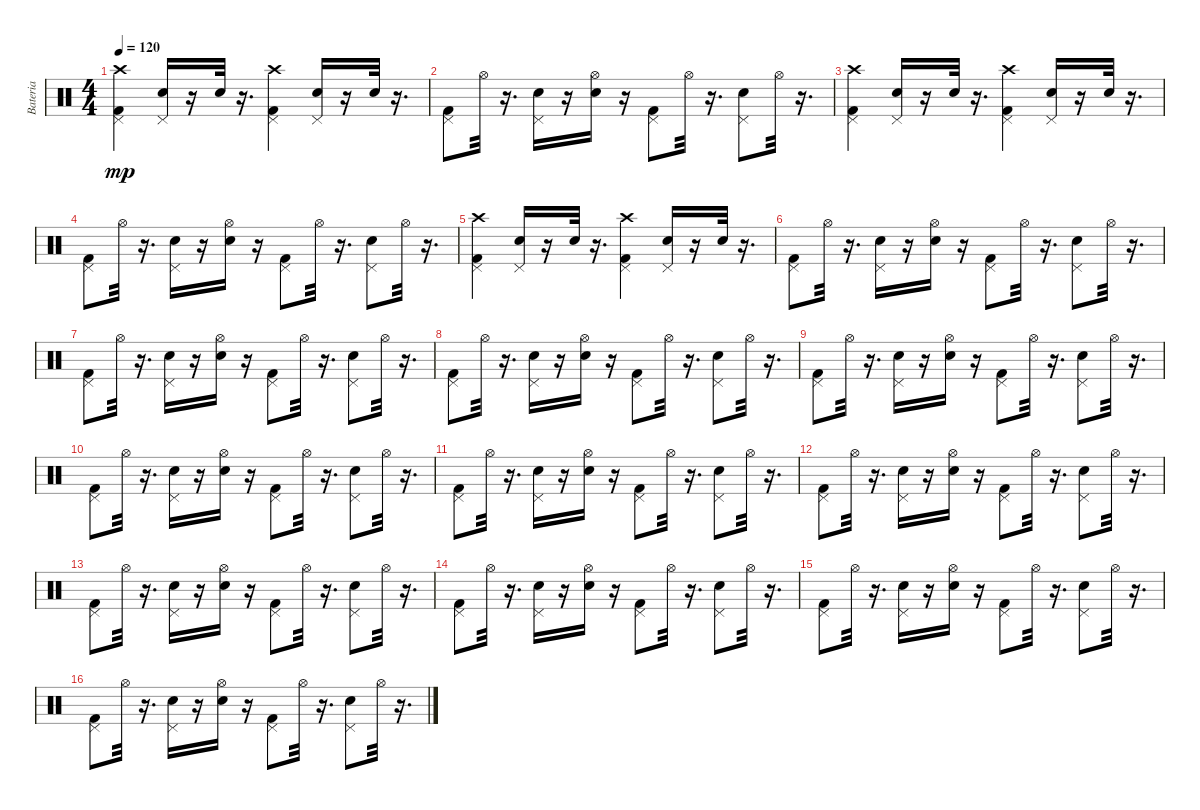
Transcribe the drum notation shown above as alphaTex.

\track ("Bateria" "Bateria") {instrument percussion}
\staff {score}
\articulation defaults
\ts (4 4)
\tempo 120
\clef neutral
\ks c
("Kick (hit) 2" "Pedal Hi-Hat (hit)" "Crash high (hit)").4{dy mp} ("Snare (hit) 2" "Pedal Hi-Hat (hit)").16 r.16 "Snare (hit) 2".32 r.16{d} ("Kick (hit) 2" "Pedal Hi-Hat (hit)" "Crash high (hit)").4 ("Snare (hit) 2" "Pedal Hi-Hat (hit)").16 r.16 "Snare (hit) 2".32 r.16{d} |
("Kick (hit) 2" "Pedal Hi-Hat (hit)").8 "Hi-Hat (open)".32 r.16{d} ("Snare (hit) 2" "Pedal Hi-Hat (hit)").16 r.16 ("Snare (hit) 2" "Hi-Hat (open)").16 r.16 ("Kick (hit) 2" "Pedal Hi-Hat (hit)").8 "Hi-Hat (open)".32 r.16{d} ("Snare (hit) 2" "Pedal Hi-Hat (hit)").8 "Hi-Hat (open)".32 r.16{d} |
("Kick (hit) 2" "Pedal Hi-Hat (hit)" "Crash high (hit)").4 ("Snare (hit) 2" "Pedal Hi-Hat (hit)").16 r.16 "Snare (hit) 2".32 r.16{d} ("Kick (hit) 2" "Pedal Hi-Hat (hit)" "Crash high (hit)").4 ("Snare (hit) 2" "Pedal Hi-Hat (hit)").16 r.16 "Snare (hit) 2".32 r.16{d} |
("Kick (hit) 2" "Pedal Hi-Hat (hit)").8 "Hi-Hat (open)".32 r.16{d} ("Snare (hit) 2" "Pedal Hi-Hat (hit)").16 r.16 ("Snare (hit) 2" "Hi-Hat (open)").16 r.16 ("Kick (hit) 2" "Pedal Hi-Hat (hit)").8 "Hi-Hat (open)".32 r.16{d} ("Snare (hit) 2" "Pedal Hi-Hat (hit)").8 "Hi-Hat (open)".32 r.16{d} |
("Kick (hit) 2" "Pedal Hi-Hat (hit)" "Crash high (hit)").4 ("Snare (hit) 2" "Pedal Hi-Hat (hit)").16 r.16 "Snare (hit) 2".32 r.16{d} ("Kick (hit) 2" "Pedal Hi-Hat (hit)" "Crash high (hit)").4 ("Snare (hit) 2" "Pedal Hi-Hat (hit)").16 r.16 "Snare (hit) 2".32 r.16{d} |
("Kick (hit) 2" "Pedal Hi-Hat (hit)").8 "Hi-Hat (open)".32 r.16{d} ("Snare (hit) 2" "Pedal Hi-Hat (hit)").16 r.16 ("Snare (hit) 2" "Hi-Hat (open)").16 r.16 ("Kick (hit) 2" "Pedal Hi-Hat (hit)").8 "Hi-Hat (open)".32 r.16{d} ("Snare (hit) 2" "Pedal Hi-Hat (hit)").8 "Hi-Hat (open)".32 r.16{d} |
("Kick (hit) 2" "Pedal Hi-Hat (hit)").8 "Hi-Hat (open)".32 r.16{d} ("Snare (hit) 2" "Pedal Hi-Hat (hit)").16 r.16 ("Snare (hit) 2" "Hi-Hat (open)").16 r.16 ("Kick (hit) 2" "Pedal Hi-Hat (hit)").8 "Hi-Hat (open)".32 r.16{d} ("Snare (hit) 2" "Pedal Hi-Hat (hit)").8 "Hi-Hat (open)".32 r.16{d} |
("Kick (hit) 2" "Pedal Hi-Hat (hit)").8 "Hi-Hat (open)".32 r.16{d} ("Snare (hit) 2" "Pedal Hi-Hat (hit)").16 r.16 ("Snare (hit) 2" "Hi-Hat (open)").16 r.16 ("Kick (hit) 2" "Pedal Hi-Hat (hit)").8 "Hi-Hat (open)".32 r.16{d} ("Snare (hit) 2" "Pedal Hi-Hat (hit)").8 "Hi-Hat (open)".32 r.16{d} |
("Kick (hit) 2" "Pedal Hi-Hat (hit)").8 "Hi-Hat (open)".32 r.16{d} ("Snare (hit) 2" "Pedal Hi-Hat (hit)").16 r.16 ("Snare (hit) 2" "Hi-Hat (open)").16 r.16 ("Kick (hit) 2" "Pedal Hi-Hat (hit)").8 "Hi-Hat (open)".32 r.16{d} ("Snare (hit) 2" "Pedal Hi-Hat (hit)").8 "Hi-Hat (open)".32 r.16{d} |
("Kick (hit) 2" "Pedal Hi-Hat (hit)").8 "Hi-Hat (open)".32 r.16{d} ("Snare (hit) 2" "Pedal Hi-Hat (hit)").16 r.16 ("Snare (hit) 2" "Hi-Hat (open)").16 r.16 ("Kick (hit) 2" "Pedal Hi-Hat (hit)").8 "Hi-Hat (open)".32 r.16{d} ("Snare (hit) 2" "Pedal Hi-Hat (hit)").8 "Hi-Hat (open)".32 r.16{d} |
("Kick (hit) 2" "Pedal Hi-Hat (hit)").8 "Hi-Hat (open)".32 r.16{d} ("Snare (hit) 2" "Pedal Hi-Hat (hit)").16 r.16 ("Snare (hit) 2" "Hi-Hat (open)").16 r.16 ("Kick (hit) 2" "Pedal Hi-Hat (hit)").8 "Hi-Hat (open)".32 r.16{d} ("Snare (hit) 2" "Pedal Hi-Hat (hit)").8 "Hi-Hat (open)".32 r.16{d} |
("Kick (hit) 2" "Pedal Hi-Hat (hit)").8 "Hi-Hat (open)".32 r.16{d} ("Snare (hit) 2" "Pedal Hi-Hat (hit)").16 r.16 ("Snare (hit) 2" "Hi-Hat (open)").16 r.16 ("Kick (hit) 2" "Pedal Hi-Hat (hit)").8 "Hi-Hat (open)".32 r.16{d} ("Snare (hit) 2" "Pedal Hi-Hat (hit)").8 "Hi-Hat (open)".32 r.16{d} |
("Kick (hit) 2" "Pedal Hi-Hat (hit)").8 "Hi-Hat (open)".32 r.16{d} ("Snare (hit) 2" "Pedal Hi-Hat (hit)").16 r.16 ("Snare (hit) 2" "Hi-Hat (open)").16 r.16 ("Kick (hit) 2" "Pedal Hi-Hat (hit)").8 "Hi-Hat (open)".32 r.16{d} ("Snare (hit) 2" "Pedal Hi-Hat (hit)").8 "Hi-Hat (open)".32 r.16{d} |
("Kick (hit) 2" "Pedal Hi-Hat (hit)").8 "Hi-Hat (open)".32 r.16{d} ("Snare (hit) 2" "Pedal Hi-Hat (hit)").16 r.16 ("Snare (hit) 2" "Hi-Hat (open)").16 r.16 ("Kick (hit) 2" "Pedal Hi-Hat (hit)").8 "Hi-Hat (open)".32 r.16{d} ("Snare (hit) 2" "Pedal Hi-Hat (hit)").8 "Hi-Hat (open)".32 r.16{d} |
("Kick (hit) 2" "Pedal Hi-Hat (hit)").8 "Hi-Hat (open)".32 r.16{d} ("Snare (hit) 2" "Pedal Hi-Hat (hit)").16 r.16 ("Snare (hit) 2" "Hi-Hat (open)").16 r.16 ("Kick (hit) 2" "Pedal Hi-Hat (hit)").8 "Hi-Hat (open)".32 r.16{d} ("Snare (hit) 2" "Pedal Hi-Hat (hit)").8 "Hi-Hat (open)".32 r.16{d} |
("Kick (hit) 2" "Pedal Hi-Hat (hit)").8 "Hi-Hat (open)".32 r.16{d} ("Snare (hit) 2" "Pedal Hi-Hat (hit)").16 r.16 ("Snare (hit) 2" "Hi-Hat (open)").16 r.16 ("Kick (hit) 2" "Pedal Hi-Hat (hit)").8 "Hi-Hat (open)".32 r.16{d} ("Snare (hit) 2" "Pedal Hi-Hat (hit)").8 "Hi-Hat (open)".32 r.16{d}
